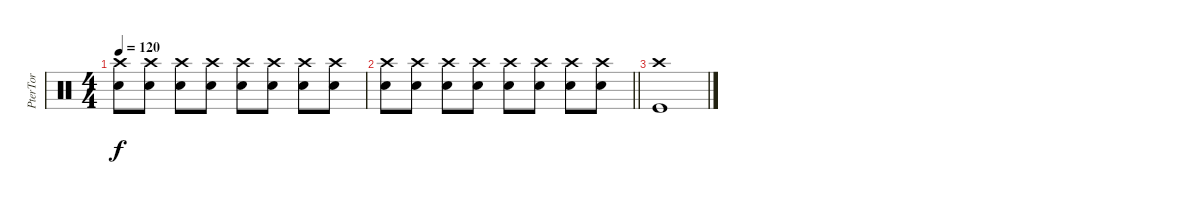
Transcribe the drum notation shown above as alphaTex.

\track ("PterTor" "PterTor") {instrument percussion}
\staff {score}
\articulation defaults
\ts (4 4)
\tempo 120
\clef neutral
\ks c
("Crash high (hit)" "Electric Snare (hit)").8{dy f} ("Crash high (hit)" "Electric Snare (hit)").8 ("Crash high (hit)" "Electric Snare (hit)").8 ("Crash high (hit)" "Electric Snare (hit)").8 ("Crash high (hit)" "Electric Snare (hit)").8 ("Crash high (hit)" "Electric Snare (hit)").8 ("Crash high (hit)" "Electric Snare (hit)").8 ("Crash high (hit)" "Electric Snare (hit)").8 |
\barLineRight lightlight
("Crash high (hit)" "Electric Snare (hit)").8 ("Crash high (hit)" "Electric Snare (hit)").8 ("Crash high (hit)" "Electric Snare (hit)").8 ("Crash high (hit)" "Electric Snare (hit)").8 ("Crash high (hit)" "Electric Snare (hit)").8 ("Crash high (hit)" "Electric Snare (hit)").8 ("Crash high (hit)" "Electric Snare (hit)").8 ("Crash high (hit)" "Electric Snare (hit)").8 |
("Crash high (hit)" "Kick (hit)").1
